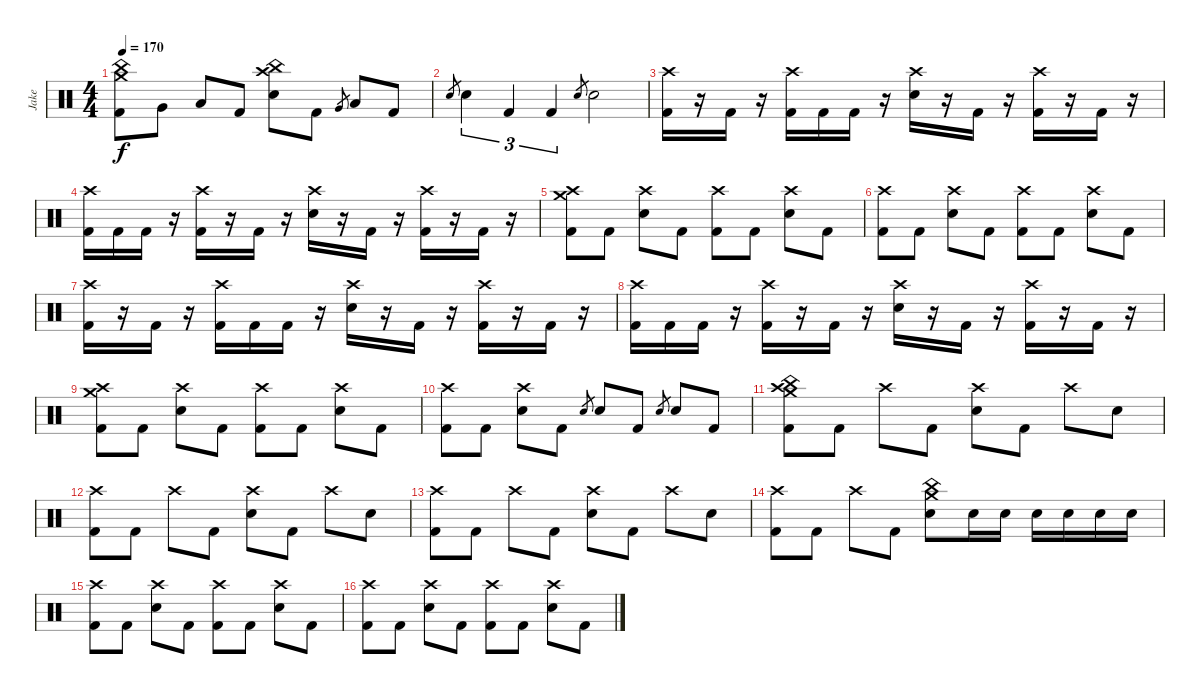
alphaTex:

\track ("Jake" "Jake") {instrument percussion}
\staff {score}
\articulation defaults
\ts (4 4)
\tempo 170
\clef neutral
\ks c
("Crash medium (hit)" "China (hit)" "Kick (hit) 2").8{dy f} "Very Low Tom (hit)".8 "Low Floor Tom (hit)".8 "Kick (hit) 2".8 ("China (hit)" "Crash high (hit)" "Electric Snare (hit)").8 "Kick (hit) 2".8 "Very Low Tom (hit)".8{gr} "Low Floor Tom (hit)".8 "Kick (hit) 2".8 |
"Electric Snare (hit)".8{gr} "Electric Snare (hit)".4{tu (3 2)} "Kick (hit) 2".4{tu (3 2)} "Kick (hit) 2".4{tu (3 2)} "Electric Snare (hit)".8{gr} "Electric Snare (hit)".2 |
("Crash high (hit)" "Kick (hit) 2").16{volume 13} r.16 "Kick (hit) 2".16 r.16 ("Crash high (hit)" "Kick (hit) 2").16 "Kick (hit) 2".16 "Kick (hit) 2".16 r.16 ("Crash high (hit)" "Electric Snare (hit)").16 r.16 "Kick (hit) 2".16 r.16 ("Crash high (hit)" "Kick (hit) 2").16 r.16 "Kick (hit) 2".16 r.16 |
("Crash high (hit)" "Kick (hit) 2").16 "Kick (hit) 2".16 "Kick (hit) 2".16 r.16 ("Crash high (hit)" "Kick (hit) 2").16 r.16 "Kick (hit) 2".16 r.16 ("Crash high (hit)" "Electric Snare (hit)").16 r.16 "Kick (hit) 2".16 r.16 ("Crash high (hit)" "Kick (hit) 2").16 r.16 "Kick (hit) 2".16 r.16 |
("Crash high (hit)" "Crash medium (hit)" "Kick (hit) 2").8 "Kick (hit) 2".8 ("Crash high (hit)" "Electric Snare (hit)").8 "Kick (hit) 2".8 ("Crash high (hit)" "Kick (hit) 2").8 "Kick (hit) 2".8 ("Crash high (hit)" "Electric Snare (hit)").8 "Kick (hit) 2".8 |
("Crash high (hit)" "Kick (hit) 2").8 "Kick (hit) 2".8 ("Crash high (hit)" "Electric Snare (hit)").8 "Kick (hit) 2".8 ("Crash high (hit)" "Kick (hit) 2").8 "Kick (hit) 2".8 ("Crash high (hit)" "Electric Snare (hit)").8 "Kick (hit) 2".8 |
("Crash high (hit)" "Kick (hit) 2").16 r.16 "Kick (hit) 2".16 r.16 ("Crash high (hit)" "Kick (hit) 2").16 "Kick (hit) 2".16 "Kick (hit) 2".16 r.16 ("Crash high (hit)" "Electric Snare (hit)").16 r.16 "Kick (hit) 2".16 r.16 ("Crash high (hit)" "Kick (hit) 2").16 r.16 "Kick (hit) 2".16 r.16 |
("Crash high (hit)" "Kick (hit) 2").16 "Kick (hit) 2".16 "Kick (hit) 2".16 r.16 ("Crash high (hit)" "Kick (hit) 2").16 r.16 "Kick (hit) 2".16 r.16 ("Crash high (hit)" "Electric Snare (hit)").16 r.16 "Kick (hit) 2".16 r.16 ("Crash high (hit)" "Kick (hit) 2").16 r.16 "Kick (hit) 2".16 r.16 |
("Crash high (hit)" "Crash medium (hit)" "Kick (hit) 2").8 "Kick (hit) 2".8 ("Crash high (hit)" "Electric Snare (hit)").8 "Kick (hit) 2".8 ("Crash high (hit)" "Kick (hit) 2").8 "Kick (hit) 2".8 ("Crash high (hit)" "Electric Snare (hit)").8 "Kick (hit) 2".8 |
("Crash high (hit)" "Kick (hit) 2").8 "Kick (hit) 2".8 ("Crash high (hit)" "Electric Snare (hit)").8 "Kick (hit) 2".8 "Electric Snare (hit)".8{gr} "Electric Snare (hit)".8 "Kick (hit) 2".8 "Electric Snare (hit)".8{gr} "Electric Snare (hit)".8 "Kick (hit) 2".8 |
("Crash high (hit)" "Crash medium (hit)" "China (hit)" "Kick (hit) 2").8 "Kick (hit) 2".8 "Crash high (hit)".8 "Kick (hit) 2".8 ("Crash high (hit)" "Electric Snare (hit)").8 "Kick (hit) 2".8 "Crash high (hit)".8 "Electric Snare (hit)".8 |
("Crash high (hit)" "Kick (hit) 2").8 "Kick (hit) 2".8 "Crash high (hit)".8 "Kick (hit) 2".8 ("Crash high (hit)" "Electric Snare (hit)").8 "Kick (hit) 2".8 "Crash high (hit)".8 "Electric Snare (hit)".8 |
("Crash high (hit)" "Kick (hit) 2").8 "Kick (hit) 2".8 "Crash high (hit)".8 "Kick (hit) 2".8 ("Crash high (hit)" "Electric Snare (hit)").8 "Kick (hit) 2".8 "Crash high (hit)".8 "Electric Snare (hit)".8 |
("Crash high (hit)" "Kick (hit) 2").8 "Kick (hit) 2".8 "Crash high (hit)".8 "Kick (hit) 2".8 ("Crash medium (hit)" "China (hit)" "Electric Snare (hit)").8 "Electric Snare (hit)".16 "Electric Snare (hit)".16 "Electric Snare (hit)".16 "Electric Snare (hit)".16 "Electric Snare (hit)".16 "Electric Snare (hit)".16 |
("Crash high (hit)" "Kick (hit) 2").8 "Kick (hit) 2".8 ("Crash high (hit)" "Electric Snare (hit)").8 "Kick (hit) 2".8 ("Crash high (hit)" "Kick (hit) 2").8 "Kick (hit) 2".8 ("Crash high (hit)" "Electric Snare (hit)").8 "Kick (hit) 2".8 |
("Crash high (hit)" "Kick (hit) 2").8 "Kick (hit) 2".8 ("Crash high (hit)" "Electric Snare (hit)").8 "Kick (hit) 2".8 ("Crash high (hit)" "Kick (hit) 2").8 "Kick (hit) 2".8 ("Crash high (hit)" "Electric Snare (hit)").8 "Kick (hit) 2".8
